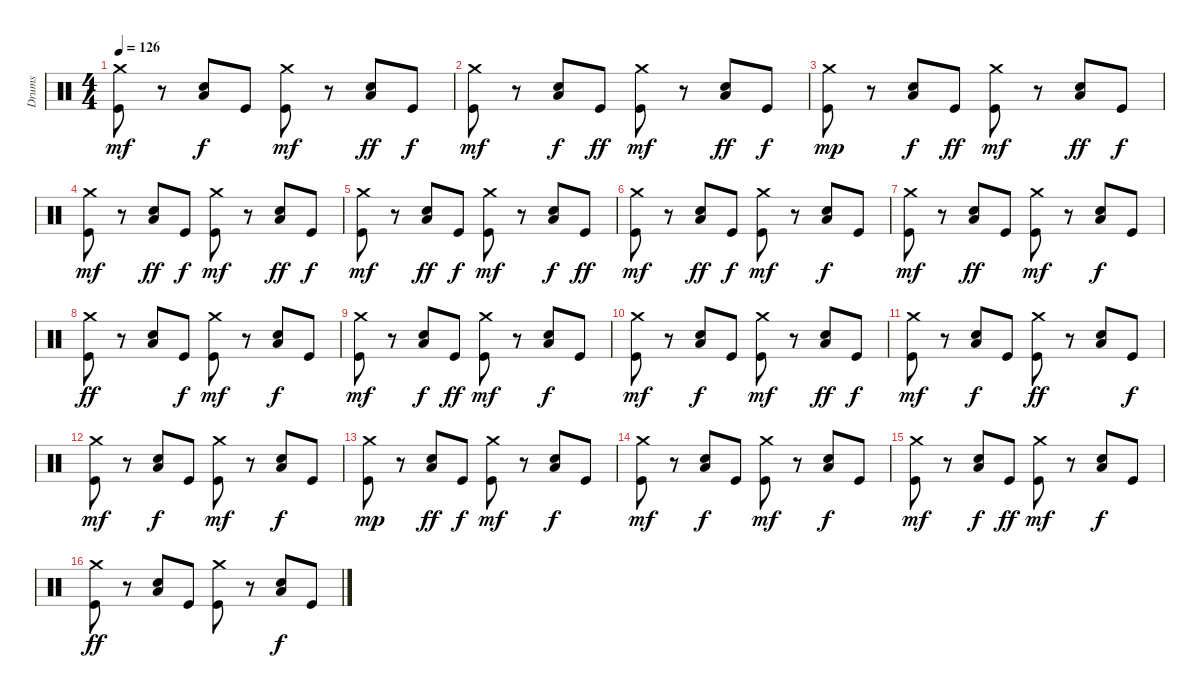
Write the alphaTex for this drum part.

\track ("Drums" "Drums") {instrument percussion}
\staff {score}
\articulation defaults
\ts (4 4)
\tempo 126
\clef neutral
\ks c
("Crash medium (hit)" "Kick (hit)").8{dy mf} r.8 ("Low Tom (hit)" "Electric Snare (hit)").8{dy f} "Kick (hit)".8 ("Crash medium (hit)" "Kick (hit)").8{dy mf} r.8 ("Low Tom (hit)" "Electric Snare (hit)").8{dy ff} "Kick (hit)".8{dy f} |
("Crash medium (hit)" "Kick (hit)").8{dy mf} r.8 ("Electric Snare (hit)" "Low Tom (hit)").8{dy f} "Kick (hit)".8{dy ff} ("Kick (hit)" "Crash medium (hit)").8{dy mf} r.8 ("Low Tom (hit)" "Electric Snare (hit)").8{dy ff} "Kick (hit)".8{dy f} |
("Crash medium (hit)" "Kick (hit)").8{dy mp} r.8 ("Low Tom (hit)" "Electric Snare (hit)").8{dy f} "Kick (hit)".8{dy ff} ("Crash medium (hit)" "Kick (hit)").8{dy mf} r.8 ("Electric Snare (hit)" "Low Tom (hit)").8{dy ff} "Kick (hit)".8{dy f} |
("Crash medium (hit)" "Kick (hit)").8{dy mf} r.8 ("Low Tom (hit)" "Electric Snare (hit)").8{dy ff} "Kick (hit)".8{dy f} ("Crash medium (hit)" "Kick (hit)").8{dy mf} r.8 ("Electric Snare (hit)" "Low Tom (hit)").8{dy ff} "Kick (hit)".8{dy f} |
("Kick (hit)" "Crash medium (hit)").8{dy mf} r.8 ("Low Tom (hit)" "Electric Snare (hit)").8{dy ff} "Kick (hit)".8{dy f} ("Crash medium (hit)" "Kick (hit)").8{dy mf} r.8 ("Low Tom (hit)" "Electric Snare (hit)").8{dy f} "Kick (hit)".8{dy ff} |
("Crash medium (hit)" "Kick (hit)").8{dy mf} r.8 ("Electric Snare (hit)" "Low Tom (hit)").8{dy ff} "Kick (hit)".8{dy f} ("Crash medium (hit)" "Kick (hit)").8{dy mf} r.8 ("Low Tom (hit)" "Electric Snare (hit)").8{dy f} "Kick (hit)".8 |
("Crash medium (hit)" "Kick (hit)").8{dy mf} r.8 ("Electric Snare (hit)" "Low Tom (hit)").8{dy ff} "Kick (hit)".8 ("Kick (hit)" "Crash medium (hit)").8{dy mf} r.8 ("Low Tom (hit)" "Electric Snare (hit)").8{dy f} "Kick (hit)".8 |
("Crash medium (hit)" "Kick (hit)").8{dy ff} r.8 ("Low Tom (hit)" "Electric Snare (hit)").8 "Kick (hit)".8{dy f} ("Crash medium (hit)" "Kick (hit)").8{dy mf} r.8 ("Electric Snare (hit)" "Low Tom (hit)").8{dy f} "Kick (hit)".8 |
("Crash medium (hit)" "Kick (hit)").8{dy mf} r.8 ("Low Tom (hit)" "Electric Snare (hit)").8{dy f} "Kick (hit)".8{dy ff} ("Crash medium (hit)" "Kick (hit)").8{dy mf} r.8 ("Electric Snare (hit)" "Low Tom (hit)").8{dy f} "Kick (hit)".8 |
("Kick (hit)" "Crash medium (hit)").8{dy mf} r.8 ("Low Tom (hit)" "Electric Snare (hit)").8{dy f} "Kick (hit)".8 ("Crash medium (hit)" "Kick (hit)").8{dy mf} r.8 ("Low Tom (hit)" "Electric Snare (hit)").8{dy ff} "Kick (hit)".8{dy f} |
("Crash medium (hit)" "Kick (hit)").8{dy mf} r.8 ("Electric Snare (hit)" "Low Tom (hit)").8{dy f} "Kick (hit)".8 ("Crash medium (hit)" "Kick (hit)").8{dy ff} r.8 ("Low Tom (hit)" "Electric Snare (hit)").8 "Kick (hit)".8{dy f} |
("Crash medium (hit)" "Kick (hit)").8{dy mf} r.8 ("Electric Snare (hit)" "Low Tom (hit)").8{dy f} "Kick (hit)".8 ("Kick (hit)" "Crash medium (hit)").8{dy mf} r.8 ("Low Tom (hit)" "Electric Snare (hit)").8{dy f} "Kick (hit)".8 |
("Crash medium (hit)" "Kick (hit)").8{dy mp} r.8 ("Low Tom (hit)" "Electric Snare (hit)").8{dy ff} "Kick (hit)".8{dy f} ("Crash medium (hit)" "Kick (hit)").8{dy mf} r.8 ("Electric Snare (hit)" "Low Tom (hit)").8{dy f} "Kick (hit)".8 |
("Crash medium (hit)" "Kick (hit)").8{dy mf} r.8 ("Low Tom (hit)" "Electric Snare (hit)").8{dy f} "Kick (hit)".8 ("Crash medium (hit)" "Kick (hit)").8{dy mf} r.8 ("Electric Snare (hit)" "Low Tom (hit)").8{dy f} "Kick (hit)".8 |
("Kick (hit)" "Crash medium (hit)").8{dy mf} r.8 ("Low Tom (hit)" "Electric Snare (hit)").8{dy f} "Kick (hit)".8{dy ff} ("Crash medium (hit)" "Kick (hit)").8{dy mf} r.8 ("Low Tom (hit)" "Electric Snare (hit)").8{dy f} "Kick (hit)".8 |
("Crash medium (hit)" "Kick (hit)").8{dy ff} r.8 ("Electric Snare (hit)" "Low Tom (hit)").8 "Kick (hit)".8 ("Crash medium (hit)" "Kick (hit)").8 r.8 ("Low Tom (hit)" "Electric Snare (hit)").8{dy f} "Kick (hit)".8
